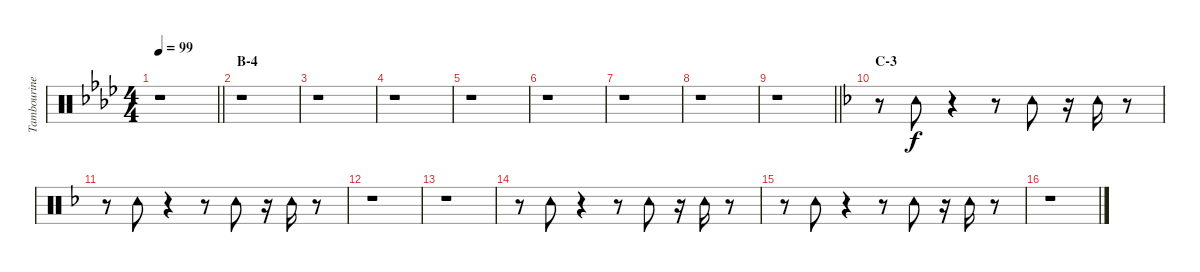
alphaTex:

\track ("Tambourine" "Tambourine") {instrument percussion}
\staff {score}
\articulation defaults
\ts (4 4)
\tempo 99
\clef neutral
\barLineRight lightlight
\ks ab
r.1{dy f} |
\section ("" "B-4")
r.1 |
r.1 |
r.1 |
r.1 |
r.1 |
r.1 |
r.1 |
\barLineRight lightlight
r.1 |
\section ("" "C-3")
\ks f
r.8 "Tambourine (hit)".8 r.4 r.8 "Tambourine (hit)".8 r.16 "Tambourine (hit)".16 r.8 |
r.8 "Tambourine (hit)".8 r.4 r.8 "Tambourine (hit)".8 r.16 "Tambourine (hit)".16 r.8 |
r.1 |
r.1 |
r.8 "Tambourine (hit)".8 r.4 r.8 "Tambourine (hit)".8 r.16 "Tambourine (hit)".16 r.8 |
r.8 "Tambourine (hit)".8 r.4 r.8 "Tambourine (hit)".8 r.16 "Tambourine (hit)".16 r.8 |
r.1
